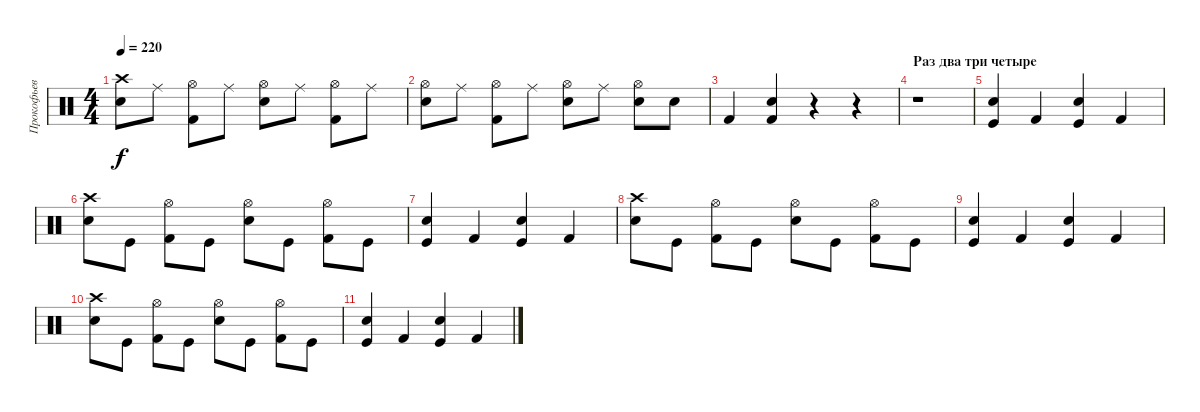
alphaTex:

\track ("Прокофьев" "Прокофьев") {instrument percussion}
\staff {score}
\articulation defaults
\ts (4 4)
\tempo 220
\clef neutral
\ks c
("Crash high (hit)" "Snare (hit) 2").8{dy f} "Ride (middle)".8 ("Hi-Hat (open)" "Kick (hit) 2").8 "Ride (middle)".8 ("Hi-Hat (open)" "Snare (hit) 2").8 "Ride (middle)".8 ("Hi-Hat (open)" "Kick (hit) 2").8 "Ride (middle)".8 |
("Hi-Hat (open)" "Snare (hit) 2").8 "Ride (middle)".8 ("Hi-Hat (open)" "Kick (hit) 2").8 "Ride (middle)".8 ("Hi-Hat (open)" "Snare (hit) 2").8 "Ride (middle)".8 ("Hi-Hat (open)" "Snare (hit) 2").8 "Snare (hit) 2".8 |
"Kick (hit) 2".4 ("Snare (hit) 2" "Kick (hit) 2").4 r.4 r.4 |
\section ("" "Раз два три четыре")
r.1 |
("Snare (hit) 2" "Kick (hit)").4 "Kick (hit) 2".4 ("Snare (hit) 2" "Kick (hit)").4 "Kick (hit) 2".4 |
("Crash high (hit)" "Snare (hit) 2").8 "Kick (hit)".8 ("Hi-Hat (open)" "Kick (hit) 2").8 "Kick (hit)".8 ("Hi-Hat (open)" "Snare (hit) 2").8 "Kick (hit)".8 ("Hi-Hat (open)" "Kick (hit) 2").8 "Kick (hit)".8 |
("Snare (hit) 2" "Kick (hit)").4 "Kick (hit) 2".4 ("Snare (hit) 2" "Kick (hit)").4 "Kick (hit) 2".4 |
("Crash high (hit)" "Snare (hit) 2").8 "Kick (hit)".8 ("Hi-Hat (open)" "Kick (hit) 2").8 "Kick (hit)".8 ("Hi-Hat (open)" "Snare (hit) 2").8 "Kick (hit)".8 ("Hi-Hat (open)" "Kick (hit) 2").8 "Kick (hit)".8 |
("Snare (hit) 2" "Kick (hit)").4 "Kick (hit) 2".4 ("Snare (hit) 2" "Kick (hit)").4 "Kick (hit) 2".4 |
("Crash high (hit)" "Snare (hit) 2").8 "Kick (hit)".8 ("Hi-Hat (open)" "Kick (hit) 2").8 "Kick (hit)".8 ("Hi-Hat (open)" "Snare (hit) 2").8 "Kick (hit)".8 ("Hi-Hat (open)" "Kick (hit) 2").8 "Kick (hit)".8 |
("Snare (hit) 2" "Kick (hit)").4 "Kick (hit) 2".4 ("Snare (hit) 2" "Kick (hit)").4 "Kick (hit) 2".4
